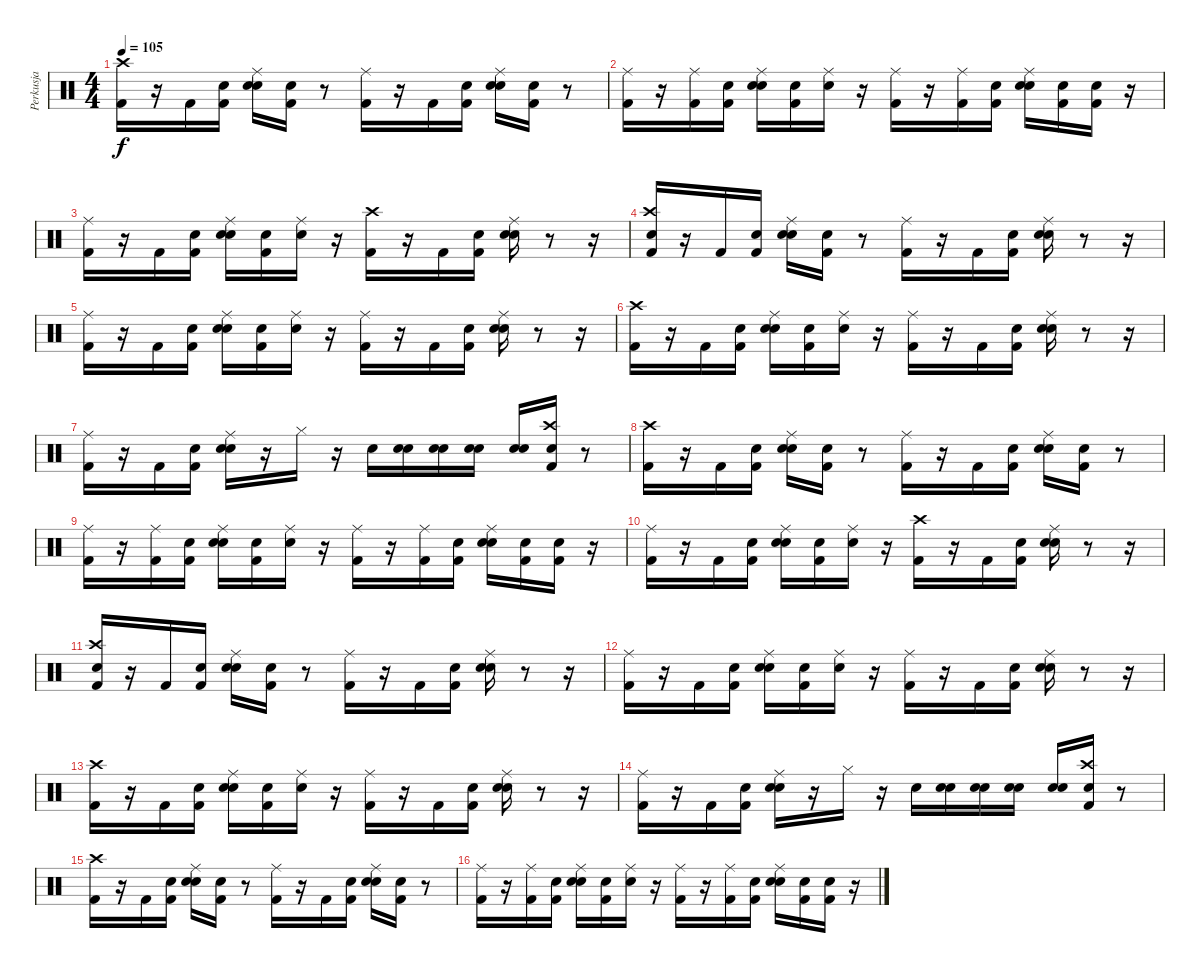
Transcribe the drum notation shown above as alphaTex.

\track ("Perkusja" "Perkusja") {instrument percussion}
\staff {score}
\articulation defaults
\ts (4 4)
\tempo 105
\clef neutral
\ks c
("Kick (hit) 2" "Crash high (hit)").16{dy f} r.16 "Kick (hit) 2".16 ("Snare (hit)" "Kick (hit) 2").16 ("Snare (hit)" "Snare (hit) 2" "Ride (middle)").16 ("Snare (hit)" "Kick (hit) 2").16 r.8 ("Kick (hit) 2" "Ride (middle)").16 r.16 "Kick (hit) 2".16 ("Snare (hit)" "Kick (hit) 2").16 ("Snare (hit)" "Snare (hit) 2" "Ride (middle)").16 ("Snare (hit)" "Kick (hit) 2").16 r.8 |
("Kick (hit) 2" "Ride (middle)").16 r.16 ("Kick (hit) 2" "Ride (middle)").16 ("Snare (hit)" "Kick (hit) 2").16 ("Snare (hit)" "Snare (hit) 2" "Ride (middle)").16 ("Snare (hit)" "Kick (hit) 2").16 ("Snare (hit)" "Ride (middle)").16 r.16 ("Kick (hit) 2" "Ride (middle)").16 r.16 ("Kick (hit) 2" "Ride (middle)").16 ("Snare (hit)" "Kick (hit) 2").16 ("Snare (hit)" "Snare (hit) 2" "Ride (middle)").16 ("Snare (hit)" "Kick (hit) 2").16 ("Snare (hit)" "Kick (hit) 2").16 r.16 |
("Kick (hit) 2" "Ride (middle)").16 r.16 "Kick (hit) 2".16 ("Snare (hit)" "Kick (hit) 2").16 ("Snare (hit)" "Snare (hit) 2" "Ride (middle)").16 ("Snare (hit)" "Kick (hit) 2").16 ("Snare (hit)" "Ride (middle)").16 r.16 ("Kick (hit) 2" "Crash high (hit)").16 r.16 "Kick (hit) 2".16 ("Snare (hit)" "Kick (hit) 2").16 ("Snare (hit)" "Snare (hit) 2" "Ride (middle)").16 r.8 r.16 |
("Snare (hit)" "Kick (hit) 2" "Crash high (hit)").16 r.16 "Kick (hit) 2".16 ("Snare (hit)" "Kick (hit) 2").16 ("Snare (hit)" "Snare (hit) 2" "Ride (middle)").16 ("Snare (hit)" "Kick (hit) 2").16 r.8 ("Kick (hit) 2" "Ride (middle)").16 r.16 "Kick (hit) 2".16 ("Snare (hit)" "Kick (hit) 2").16 ("Snare (hit)" "Snare (hit) 2" "Ride (middle)").16 r.8 r.16 |
("Kick (hit) 2" "Ride (middle)").16 r.16 "Kick (hit) 2".16 ("Snare (hit)" "Kick (hit) 2").16 ("Snare (hit)" "Snare (hit) 2" "Ride (middle)").16 ("Snare (hit)" "Kick (hit) 2").16 ("Snare (hit)" "Ride (middle)").16 r.16 ("Kick (hit) 2" "Ride (middle)").16 r.16 "Kick (hit) 2".16 ("Snare (hit)" "Kick (hit) 2").16 ("Snare (hit)" "Snare (hit) 2" "Ride (middle)").16 r.8 r.16 |
("Kick (hit) 2" "Crash high (hit)").16 r.16 "Kick (hit) 2".16 ("Snare (hit)" "Kick (hit) 2").16 ("Snare (hit)" "Snare (hit) 2" "Ride (middle)").16 ("Snare (hit)" "Kick (hit) 2").16 ("Snare (hit)" "Ride (middle)").16 r.16 ("Kick (hit) 2" "Ride (middle)").16 r.16 "Kick (hit) 2".16 ("Snare (hit)" "Kick (hit) 2").16 ("Snare (hit)" "Snare (hit) 2" "Ride (middle)").16 r.8 r.16 |
("Kick (hit) 2" "Ride (middle)").16 r.16 "Kick (hit) 2".16 ("Snare (hit)" "Kick (hit) 2").16 ("Snare (hit)" "Snare (hit) 2" "Ride (middle)").16 r.16 "Hi-Hat (closed)".16 r.16 "Snare (hit) 2".16 ("Snare (hit)" "Snare (hit) 2").16 ("Snare (hit)" "Snare (hit) 2").16 ("Snare (hit)" "Snare (hit) 2").16 ("Snare (hit)" "Snare (hit) 2").16 ("Snare (hit)" "Kick (hit) 2" "Crash high (hit)").16 r.8 |
("Kick (hit) 2" "Crash high (hit)").16 r.16 "Kick (hit) 2".16 ("Snare (hit)" "Kick (hit) 2").16 ("Snare (hit)" "Snare (hit) 2" "Ride (middle)").16 ("Snare (hit)" "Kick (hit) 2").16 r.8 ("Kick (hit) 2" "Ride (middle)").16 r.16 "Kick (hit) 2".16 ("Snare (hit)" "Kick (hit) 2").16 ("Snare (hit)" "Snare (hit) 2" "Ride (middle)").16 ("Snare (hit)" "Kick (hit) 2").16 r.8 |
("Kick (hit) 2" "Ride (middle)").16 r.16 ("Kick (hit) 2" "Ride (middle)").16 ("Snare (hit)" "Kick (hit) 2").16 ("Snare (hit)" "Snare (hit) 2" "Ride (middle)").16 ("Snare (hit)" "Kick (hit) 2").16 ("Snare (hit)" "Ride (middle)").16 r.16 ("Kick (hit) 2" "Ride (middle)").16 r.16 ("Kick (hit) 2" "Ride (middle)").16 ("Snare (hit)" "Kick (hit) 2").16 ("Snare (hit)" "Snare (hit) 2" "Ride (middle)").16 ("Snare (hit)" "Kick (hit) 2").16 ("Snare (hit)" "Kick (hit) 2").16 r.16 |
("Kick (hit) 2" "Ride (middle)").16 r.16 "Kick (hit) 2".16 ("Snare (hit)" "Kick (hit) 2").16 ("Snare (hit)" "Snare (hit) 2" "Ride (middle)").16 ("Snare (hit)" "Kick (hit) 2").16 ("Snare (hit)" "Ride (middle)").16 r.16 ("Kick (hit) 2" "Crash high (hit)").16 r.16 "Kick (hit) 2".16 ("Snare (hit)" "Kick (hit) 2").16 ("Snare (hit)" "Snare (hit) 2" "Ride (middle)").16 r.8 r.16 |
("Snare (hit)" "Kick (hit) 2" "Crash high (hit)").16 r.16 "Kick (hit) 2".16 ("Snare (hit)" "Kick (hit) 2").16 ("Snare (hit)" "Snare (hit) 2" "Ride (middle)").16 ("Snare (hit)" "Kick (hit) 2").16 r.8 ("Kick (hit) 2" "Ride (middle)").16 r.16 "Kick (hit) 2".16 ("Snare (hit)" "Kick (hit) 2").16 ("Snare (hit)" "Snare (hit) 2" "Ride (middle)").16 r.8 r.16 |
("Kick (hit) 2" "Ride (middle)").16 r.16 "Kick (hit) 2".16 ("Snare (hit)" "Kick (hit) 2").16 ("Snare (hit)" "Snare (hit) 2" "Ride (middle)").16 ("Snare (hit)" "Kick (hit) 2").16 ("Snare (hit)" "Ride (middle)").16 r.16 ("Kick (hit) 2" "Ride (middle)").16 r.16 "Kick (hit) 2".16 ("Snare (hit)" "Kick (hit) 2").16 ("Snare (hit)" "Snare (hit) 2" "Ride (middle)").16 r.8 r.16 |
("Kick (hit) 2" "Crash high (hit)").16 r.16 "Kick (hit) 2".16 ("Snare (hit)" "Kick (hit) 2").16 ("Snare (hit)" "Snare (hit) 2" "Ride (middle)").16 ("Snare (hit)" "Kick (hit) 2").16 ("Snare (hit)" "Ride (middle)").16 r.16 ("Kick (hit) 2" "Ride (middle)").16 r.16 "Kick (hit) 2".16 ("Snare (hit)" "Kick (hit) 2").16 ("Snare (hit)" "Snare (hit) 2" "Ride (middle)").16 r.8 r.16 |
("Kick (hit) 2" "Ride (middle)").16 r.16 "Kick (hit) 2".16 ("Snare (hit)" "Kick (hit) 2").16 ("Snare (hit)" "Snare (hit) 2" "Ride (middle)").16 r.16 "Hi-Hat (closed)".16 r.16 "Snare (hit) 2".16 ("Snare (hit)" "Snare (hit) 2").16 ("Snare (hit)" "Snare (hit) 2").16 ("Snare (hit)" "Snare (hit) 2").16 ("Snare (hit)" "Snare (hit) 2").16 ("Snare (hit)" "Kick (hit) 2" "Crash high (hit)").16 r.8 |
("Kick (hit) 2" "Crash high (hit)").16 r.16 "Kick (hit) 2".16 ("Snare (hit)" "Kick (hit) 2").16 ("Snare (hit)" "Snare (hit) 2" "Ride (middle)").16 ("Snare (hit)" "Kick (hit) 2").16 r.8 ("Kick (hit) 2" "Ride (middle)").16 r.16 "Kick (hit) 2".16 ("Snare (hit)" "Kick (hit) 2").16 ("Snare (hit)" "Snare (hit) 2" "Ride (middle)").16 ("Snare (hit)" "Kick (hit) 2").16 r.8 |
("Kick (hit) 2" "Ride (middle)").16 r.16 ("Kick (hit) 2" "Ride (middle)").16 ("Snare (hit)" "Kick (hit) 2").16 ("Snare (hit)" "Snare (hit) 2" "Ride (middle)").16 ("Snare (hit)" "Kick (hit) 2").16 ("Snare (hit)" "Ride (middle)").16 r.16 ("Kick (hit) 2" "Ride (middle)").16 r.16 ("Kick (hit) 2" "Ride (middle)").16 ("Snare (hit)" "Kick (hit) 2").16 ("Snare (hit)" "Snare (hit) 2" "Ride (middle)").16 ("Snare (hit)" "Kick (hit) 2").16 ("Snare (hit)" "Kick (hit) 2").16 r.16
